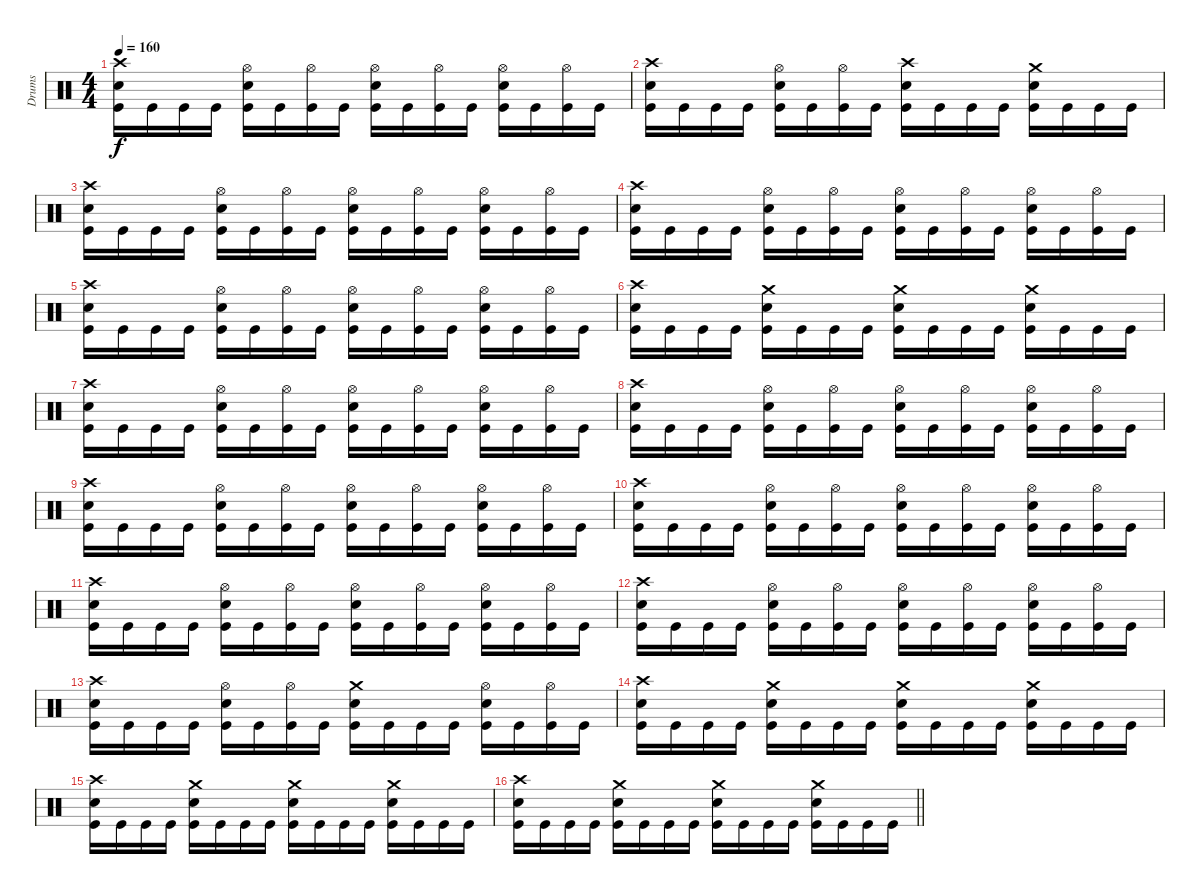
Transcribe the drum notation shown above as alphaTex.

\track ("Drums" "Drums") {instrument percussion}
\staff {score}
\articulation defaults
\ts (4 4)
\tempo 160
\clef neutral
\ks c
("Crash high (hit)" "Snare (hit) 2" "Kick (hit)").16{dy f} "Kick (hit)".16 "Kick (hit)".16 "Kick (hit)".16 ("Hi-Hat (open)" "Snare (hit) 2" "Kick (hit)").16 "Kick (hit)".16 ("Hi-Hat (open)" "Kick (hit)").16 "Kick (hit)".16 ("Hi-Hat (open)" "Snare (hit) 2" "Kick (hit)").16 "Kick (hit)".16 ("Hi-Hat (open)" "Kick (hit)").16 "Kick (hit)".16 ("Hi-Hat (open)" "Snare (hit) 2" "Kick (hit)").16 "Kick (hit)".16 ("Hi-Hat (open)" "Kick (hit)").16 "Kick (hit)".16 |
("Crash high (hit)" "Snare (hit) 2" "Kick (hit)").16 "Kick (hit)".16 "Kick (hit)".16 "Kick (hit)".16 ("Hi-Hat (open)" "Snare (hit) 2" "Kick (hit)").16 "Kick (hit)".16 ("Hi-Hat (open)" "Kick (hit)").16 "Kick (hit)".16 ("Crash high (hit)" "Snare (hit) 2" "Kick (hit)").16 "Kick (hit)".16 "Kick (hit)".16 "Kick (hit)".16 ("Crash medium (hit)" "Snare (hit) 2" "Kick (hit)").16 "Kick (hit)".16 "Kick (hit)".16 "Kick (hit)".16 |
("Crash high (hit)" "Snare (hit) 2" "Kick (hit)").16 "Kick (hit)".16 "Kick (hit)".16 "Kick (hit)".16 ("Hi-Hat (open)" "Snare (hit) 2" "Kick (hit)").16 "Kick (hit)".16 ("Hi-Hat (open)" "Kick (hit)").16 "Kick (hit)".16 ("Hi-Hat (open)" "Snare (hit) 2" "Kick (hit)").16 "Kick (hit)".16 ("Hi-Hat (open)" "Kick (hit)").16 "Kick (hit)".16 ("Hi-Hat (open)" "Snare (hit) 2" "Kick (hit)").16 "Kick (hit)".16 ("Hi-Hat (open)" "Kick (hit)").16 "Kick (hit)".16 |
("Crash high (hit)" "Snare (hit) 2" "Kick (hit)").16 "Kick (hit)".16 "Kick (hit)".16 "Kick (hit)".16 ("Hi-Hat (open)" "Snare (hit) 2" "Kick (hit)").16 "Kick (hit)".16 ("Hi-Hat (open)" "Kick (hit)").16 "Kick (hit)".16 ("Hi-Hat (open)" "Snare (hit) 2" "Kick (hit)").16 "Kick (hit)".16 ("Hi-Hat (open)" "Kick (hit)").16 "Kick (hit)".16 ("Hi-Hat (open)" "Snare (hit) 2" "Kick (hit)").16 "Kick (hit)".16 ("Hi-Hat (open)" "Kick (hit)").16 "Kick (hit)".16 |
("Crash high (hit)" "Snare (hit) 2" "Kick (hit)").16 "Kick (hit)".16 "Kick (hit)".16 "Kick (hit)".16 ("Hi-Hat (open)" "Snare (hit) 2" "Kick (hit)").16 "Kick (hit)".16 ("Hi-Hat (open)" "Kick (hit)").16 "Kick (hit)".16 ("Hi-Hat (open)" "Snare (hit) 2" "Kick (hit)").16 "Kick (hit)".16 ("Hi-Hat (open)" "Kick (hit)").16 "Kick (hit)".16 ("Hi-Hat (open)" "Snare (hit) 2" "Kick (hit)").16 "Kick (hit)".16 ("Hi-Hat (open)" "Kick (hit)").16 "Kick (hit)".16 |
("Crash high (hit)" "Snare (hit) 2" "Kick (hit)").16 "Kick (hit)".16 "Kick (hit)".16 "Kick (hit)".16 ("Crash medium (hit)" "Snare (hit) 2" "Kick (hit)").16 "Kick (hit)".16 "Kick (hit)".16 "Kick (hit)".16 ("Crash medium (hit)" "Snare (hit) 2" "Kick (hit)").16 "Kick (hit)".16 "Kick (hit)".16 "Kick (hit)".16 ("Crash medium (hit)" "Snare (hit) 2" "Kick (hit)").16 "Kick (hit)".16 "Kick (hit)".16 "Kick (hit)".16 |
("Crash high (hit)" "Snare (hit) 2" "Kick (hit)").16 "Kick (hit)".16 "Kick (hit)".16 "Kick (hit)".16 ("Hi-Hat (open)" "Snare (hit) 2" "Kick (hit)").16 "Kick (hit)".16 ("Hi-Hat (open)" "Kick (hit)").16 "Kick (hit)".16 ("Hi-Hat (open)" "Snare (hit) 2" "Kick (hit)").16 "Kick (hit)".16 ("Hi-Hat (open)" "Kick (hit)").16 "Kick (hit)".16 ("Hi-Hat (open)" "Snare (hit) 2" "Kick (hit)").16 "Kick (hit)".16 ("Hi-Hat (open)" "Kick (hit)").16 "Kick (hit)".16 |
("Crash high (hit)" "Snare (hit) 2" "Kick (hit)").16 "Kick (hit)".16 "Kick (hit)".16 "Kick (hit)".16 ("Hi-Hat (open)" "Snare (hit) 2" "Kick (hit)").16 "Kick (hit)".16 ("Hi-Hat (open)" "Kick (hit)").16 "Kick (hit)".16 ("Hi-Hat (open)" "Snare (hit) 2" "Kick (hit)").16 "Kick (hit)".16 ("Hi-Hat (open)" "Kick (hit)").16 "Kick (hit)".16 ("Hi-Hat (open)" "Snare (hit) 2" "Kick (hit)").16 "Kick (hit)".16 ("Hi-Hat (open)" "Kick (hit)").16 "Kick (hit)".16 |
("Crash high (hit)" "Snare (hit) 2" "Kick (hit)").16 "Kick (hit)".16 "Kick (hit)".16 "Kick (hit)".16 ("Hi-Hat (open)" "Snare (hit) 2" "Kick (hit)").16 "Kick (hit)".16 ("Hi-Hat (open)" "Kick (hit)").16 "Kick (hit)".16 ("Hi-Hat (open)" "Snare (hit) 2" "Kick (hit)").16 "Kick (hit)".16 ("Hi-Hat (open)" "Kick (hit)").16 "Kick (hit)".16 ("Hi-Hat (open)" "Snare (hit) 2" "Kick (hit)").16 "Kick (hit)".16 ("Hi-Hat (open)" "Kick (hit)").16 "Kick (hit)".16 |
("Crash high (hit)" "Snare (hit) 2" "Kick (hit)").16 "Kick (hit)".16 "Kick (hit)".16 "Kick (hit)".16 ("Hi-Hat (open)" "Snare (hit) 2" "Kick (hit)").16 "Kick (hit)".16 ("Hi-Hat (open)" "Kick (hit)").16 "Kick (hit)".16 ("Hi-Hat (open)" "Snare (hit) 2" "Kick (hit)").16 "Kick (hit)".16 ("Hi-Hat (open)" "Kick (hit)").16 "Kick (hit)".16 ("Hi-Hat (open)" "Snare (hit) 2" "Kick (hit)").16 "Kick (hit)".16 ("Hi-Hat (open)" "Kick (hit)").16 "Kick (hit)".16 |
("Crash high (hit)" "Snare (hit) 2" "Kick (hit)").16 "Kick (hit)".16 "Kick (hit)".16 "Kick (hit)".16 ("Hi-Hat (open)" "Snare (hit) 2" "Kick (hit)").16 "Kick (hit)".16 ("Hi-Hat (open)" "Kick (hit)").16 "Kick (hit)".16 ("Hi-Hat (open)" "Snare (hit) 2" "Kick (hit)").16 "Kick (hit)".16 ("Hi-Hat (open)" "Kick (hit)").16 "Kick (hit)".16 ("Hi-Hat (open)" "Snare (hit) 2" "Kick (hit)").16 "Kick (hit)".16 ("Hi-Hat (open)" "Kick (hit)").16 "Kick (hit)".16 |
("Crash high (hit)" "Snare (hit) 2" "Kick (hit)").16 "Kick (hit)".16 "Kick (hit)".16 "Kick (hit)".16 ("Hi-Hat (open)" "Snare (hit) 2" "Kick (hit)").16 "Kick (hit)".16 ("Hi-Hat (open)" "Kick (hit)").16 "Kick (hit)".16 ("Hi-Hat (open)" "Snare (hit) 2" "Kick (hit)").16 "Kick (hit)".16 ("Hi-Hat (open)" "Kick (hit)").16 "Kick (hit)".16 ("Hi-Hat (open)" "Snare (hit) 2" "Kick (hit)").16 "Kick (hit)".16 ("Hi-Hat (open)" "Kick (hit)").16 "Kick (hit)".16 |
("Crash high (hit)" "Snare (hit) 2" "Kick (hit)").16 "Kick (hit)".16 "Kick (hit)".16 "Kick (hit)".16 ("Hi-Hat (open)" "Snare (hit) 2" "Kick (hit)").16 "Kick (hit)".16 ("Hi-Hat (open)" "Kick (hit)").16 "Kick (hit)".16 ("Crash medium (hit)" "Snare (hit) 2" "Kick (hit)").16 "Kick (hit)".16 "Kick (hit)".16 "Kick (hit)".16 ("Hi-Hat (open)" "Snare (hit) 2" "Kick (hit)").16 "Kick (hit)".16 ("Hi-Hat (open)" "Kick (hit)").16 "Kick (hit)".16 |
("Crash high (hit)" "Snare (hit) 2" "Kick (hit)").16 "Kick (hit)".16 "Kick (hit)".16 "Kick (hit)".16 ("Crash medium (hit)" "Snare (hit) 2" "Kick (hit)").16 "Kick (hit)".16 "Kick (hit)".16 "Kick (hit)".16 ("Crash medium (hit)" "Snare (hit) 2" "Kick (hit)").16 "Kick (hit)".16 "Kick (hit)".16 "Kick (hit)".16 ("Crash medium (hit)" "Snare (hit) 2" "Kick (hit)").16 "Kick (hit)".16 "Kick (hit)".16 "Kick (hit)".16 |
("Crash high (hit)" "Snare (hit) 2" "Kick (hit)").16 "Kick (hit)".16 "Kick (hit)".16 "Kick (hit)".16 ("Crash medium (hit)" "Snare (hit) 2" "Kick (hit)").16 "Kick (hit)".16 "Kick (hit)".16 "Kick (hit)".16 ("Crash medium (hit)" "Snare (hit) 2" "Kick (hit)").16 "Kick (hit)".16 "Kick (hit)".16 "Kick (hit)".16 ("Crash medium (hit)" "Snare (hit) 2" "Kick (hit)").16 "Kick (hit)".16 "Kick (hit)".16 "Kick (hit)".16 |
\barLineRight lightlight
("Crash high (hit)" "Snare (hit) 2" "Kick (hit)").16 "Kick (hit)".16 "Kick (hit)".16 "Kick (hit)".16 ("Crash medium (hit)" "Snare (hit) 2" "Kick (hit)").16 "Kick (hit)".16 "Kick (hit)".16 "Kick (hit)".16 ("Crash medium (hit)" "Snare (hit) 2" "Kick (hit)").16 "Kick (hit)".16 "Kick (hit)".16 "Kick (hit)".16 ("Crash medium (hit)" "Snare (hit) 2" "Kick (hit)").16 "Kick (hit)".16 "Kick (hit)".16 "Kick (hit)".16
